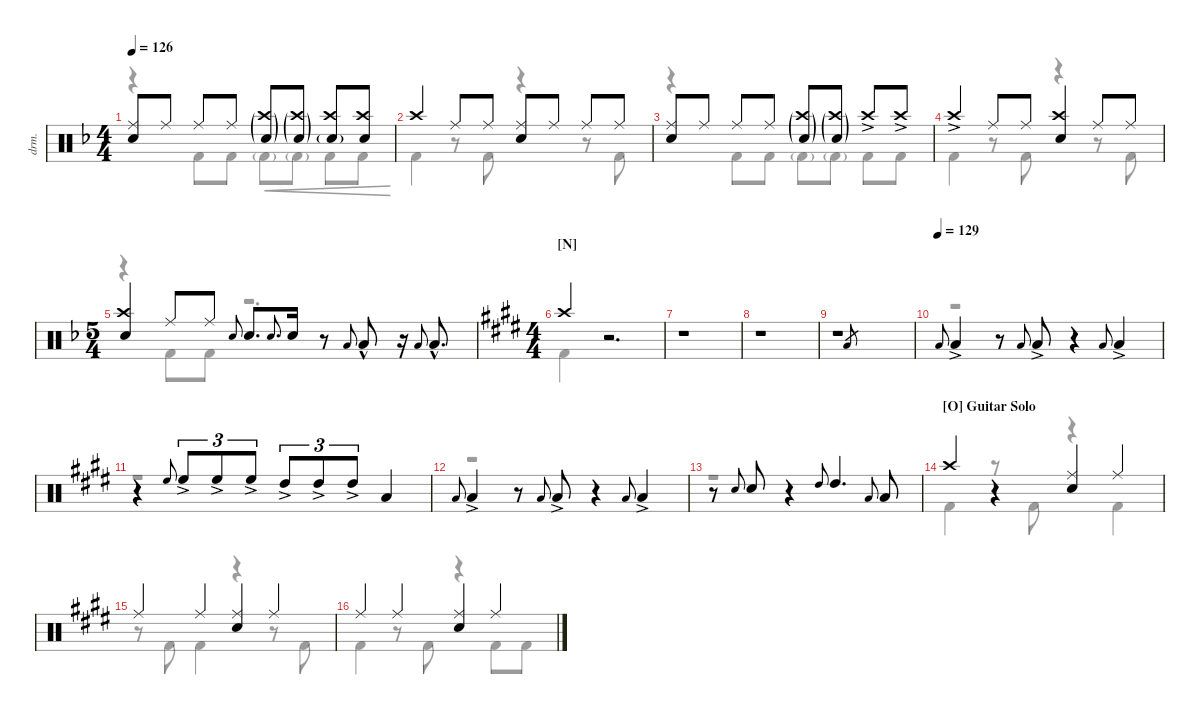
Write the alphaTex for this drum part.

\defaultSystemsLayout 4
\hideDynamics
\bracketExtendMode nobrackets
\track ("Drums" "drm.") {instrument percussion}
\staff {score}
\articulation defaults
\voice
\ts (4 4)
\tempo 126
\clef neutral
\ks f
("Ride (middle)"{acc forcenatural} "Snare (hit) 2"{acc forcenatural}).8{dy mf} "Ride (middle)"{acc forcenatural}.8 "Ride (middle)"{acc forcenatural}.8 "Ride (middle)"{acc forcenatural}.8 ("Crash high (hit)"{g acc forcenatural} "Snare (hit) 2"{g acc forcenatural}).8 ("Crash high (hit)"{g acc forcenatural} "Snare (hit) 2"{g acc forcenatural}).8 ("Crash high (hit)"{acc forcenatural} "Snare (hit) 2"{g acc forcenatural}).8 ("Crash high (hit)"{acc forcenatural} "Snare (hit) 2"{acc forcenatural}).8 |
"Crash high (hit)"{acc forcenatural}.4 "Ride (middle)"{acc forcenatural}.8 "Ride (middle)"{acc forcenatural}.8 ("Ride (middle)"{acc forcenatural} "Snare (hit) 2"{acc forcenatural}).8 "Ride (middle)"{acc forcenatural}.8 "Ride (middle)"{acc forcenatural}.8 "Ride (middle)"{acc forcenatural}.8 |
("Snare (hit) 2"{acc forcenatural} "Ride (middle)"{acc forcenatural}).8 "Ride (middle)"{acc forcenatural}.8 "Ride (middle)"{acc forcenatural}.8 "Ride (middle)"{acc forcenatural}.8 ("Crash high (hit)"{g acc forcenatural} "Snare (hit) 2"{g acc forcenatural}).8 ("Crash high (hit)"{g acc forcenatural} "Snare (hit) 2"{g acc forcenatural}).8 "Crash high (hit)"{ac acc forcenatural}.8 "Crash high (hit)"{ac acc forcenatural}.8 |
"Crash high (hit)"{ac acc forcenatural}.4 "Ride (middle)"{acc forcenatural}.8 "Ride (middle)"{acc forcenatural}.8 ("Crash high (hit)"{acc forcenatural} "Snare (hit) 2"{acc forcenatural}).4 "Ride (middle)"{acc forcenatural}.8 "Ride (middle)"{acc forcenatural}.8 |
\ts (5 4)
\beaming (8 6 4)
("Crash high (hit)"{acc forcenatural} "Snare (hit) 2"{acc forcenatural}).4 "Ride (middle)"{acc forcenatural}.8 "Ride (middle)"{acc forcenatural}.8{beam split} "Snare (hit) 2"{acc forcenatural}.8{gr onbeat beam split} "Snare (hit) 2"{acc forcenatural}.8{d} "Snare (hit) 2"{acc forcenatural}.8{d gr onbeat} "Snare (hit) 2"{acc forcenatural}.16 r.8 "Low Tom (hit)"{acc forcenatural}.8{gr onbeat} "Low Tom (hit)"{hac acc forcenatural}.8{beam split} r.16{beam split} "Low Tom (hit)"{acc forcenatural}.8{gr onbeat beam split} "Low Tom (hit)"{hac acc forcenatural}.8{d} |
\ts (4 4)
\beaming (8 2 2 2 2)
\section ("N" "")
\ks e "Crash high (hit)"{acc forcenatural}.4
r.2{d} |
r.1 |
r.1 |
r.1 "Low Tom (hit)"{acc forcenatural}.8{gr} |
\tempo (129)
"Low Tom (hit)"{acc forcenatural}.8{gr onbeat} "Low Tom (hit)"{ac acc forcenatural}.4 r.8 "Low Tom (hit)"{acc forcenatural}.8{gr onbeat} "Low Tom (hit)"{ac acc forcenatural}.8 r.4 "Low Tom (hit)"{acc forcenatural}.8{gr onbeat} "Low Tom (hit)"{ac acc forcenatural}.4 |
r.4 "High Floor Tom (hit)"{acc forcenatural}.8{gr onbeat} "High Floor Tom (hit)"{ac acc forcenatural}.8{tu (3 2)} "High Floor Tom (hit)"{ac acc forcenatural}.8{tu (3 2)} "High Floor Tom (hit)"{ac acc forcenatural}.8{tu (3 2)} "High Tom (hit)"{ac acc forcenatural}.8{tu (3 2)} "High Tom (hit)"{ac acc forcenatural}.8{tu (3 2)} "High Tom (hit)"{ac acc forcenatural}.8{tu (3 2)} "Low Tom (hit)"{acc forcenatural}.4 |
"Low Tom (hit)"{acc forcenatural}.8{gr onbeat} "Low Tom (hit)"{ac acc forcenatural}.4 r.8 "Low Tom (hit)"{acc forcenatural}.8{gr onbeat} "Low Tom (hit)"{ac acc forcenatural}.8 r.4 "Low Tom (hit)"{acc forcenatural}.8{gr onbeat} "Low Tom (hit)"{ac acc forcenatural}.4 |
r.8 "Snare (hit) 2"{acc forcenatural}.8{gr onbeat} "Snare (hit) 2"{acc forcenatural}.8 r.4 "High Tom (hit)"{acc forcenatural}.8{gr onbeat} "High Tom (hit)"{acc forcenatural}.4{d} "Low Tom (hit)"{acc forcenatural}.8{gr onbeat} "Low Tom (hit)"{acc forcenatural}.8 |
\section ("O" "Guitar Solo")
"Crash high (hit)"{acc forcenatural}.4 r.4 ("Ride (middle)"{acc forcenatural} "Snare (hit) 2"{acc forcenatural}).4 "Ride (middle)"{acc forcenatural}.4 |
"Ride (middle)"{acc forcenatural}.4 "Ride (middle)"{acc forcenatural}.4 ("Ride (middle)"{acc forcenatural} "Snare (hit) 2"{acc forcenatural}).4 "Ride (middle)"{acc forcenatural}.4 |
"Ride (middle)"{acc forcenatural}.4 "Ride (middle)"{acc forcenatural}.4 ("Ride (middle)"{acc forcenatural} "Snare (hit) 2"{acc forcenatural}).4 "Ride (middle)"{acc forcenatural}.4
\voice
\clef neutral
\ottava regular
\simile none
\ks f
r.4{dy mf} "Kick (hit) 2"{acc forcenatural}.8 "Kick (hit) 2"{acc forcenatural}.8 "Kick (hit) 2"{g acc forcenatural}.8{cre} "Kick (hit) 2"{g acc forcenatural}.8{cre} "Kick (hit) 2"{acc forcenatural}.8{cre} "Kick (hit) 2"{acc forcenatural}.8{cre} |
"Kick (hit) 2"{acc forcenatural}.4 r.8 "Kick (hit) 2"{acc forcenatural}.8 r.4 r.8 "Kick (hit) 2"{acc forcenatural}.8 |
r.4 "Kick (hit) 2"{acc forcenatural}.8 "Kick (hit) 2"{acc forcenatural}.8 "Kick (hit) 2"{g acc forcenatural}.8 "Kick (hit) 2"{g acc forcenatural}.8 "Kick (hit) 2"{acc forcenatural}.8 "Kick (hit) 2"{acc forcenatural}.8 |
"Kick (hit) 2"{acc forcenatural}.4 r.8 "Kick (hit) 2"{acc forcenatural}.8 r.4 r.8 "Kick (hit) 2"{acc forcenatural}.8 |
r.4 "Kick (hit) 2"{acc forcenatural}.8 "Kick (hit) 2"{acc forcenatural}.8 r.2{d} |
\ks e "Kick (hit) 2"{acc forcenatural}.4
r.2{d} |
r.1 |
r.1 |
r.1 |
r.1 |
r.1 |
r.1 |
r.1 |
"Kick (hit) 2"{acc forcenatural}.4 r.8 "Kick (hit) 2"{acc forcenatural}.8 r.4 "Kick (hit) 2"{acc forcenatural}.4 |
r.8 "Kick (hit) 2"{acc forcenatural}.8 "Kick (hit) 2"{acc forcenatural}.4 r.4 r.8 "Kick (hit) 2"{acc forcenatural}.8 |
"Kick (hit) 2"{acc forcenatural}.4 r.8 "Kick (hit) 2"{acc forcenatural}.8 r.4 "Kick (hit) 2"{acc forcenatural}.8 "Kick (hit) 2"{acc forcenatural}.8
